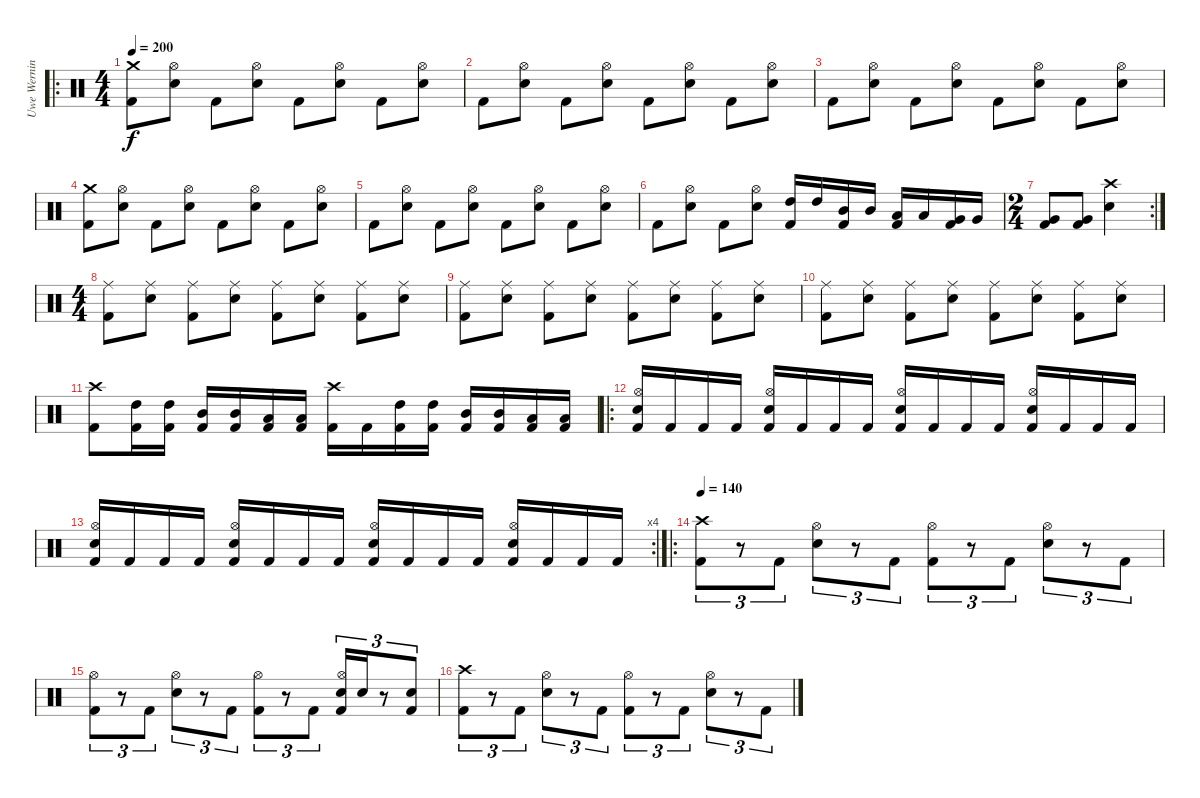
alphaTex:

\track ("Uwe Werning" "Uwe Wernin") {instrument percussion}
\staff {score}
\articulation defaults
\ro
\ts (4 4)
\tempo 200
\clef neutral
\ks c
("Crash medium (hit)" "Kick (hit) 2").8{dy f} ("Hi-Hat (open)" "Electric Snare (hit)").8 "Kick (hit) 2".8 ("Hi-Hat (open)" "Electric Snare (hit)").8 "Kick (hit) 2".8 ("Hi-Hat (open)" "Electric Snare (hit)").8 "Kick (hit) 2".8 ("Hi-Hat (open)" "Electric Snare (hit)").8 |
"Kick (hit) 2".8 ("Hi-Hat (open)" "Electric Snare (hit)").8 "Kick (hit) 2".8 ("Hi-Hat (open)" "Electric Snare (hit)").8 "Kick (hit) 2".8 ("Hi-Hat (open)" "Electric Snare (hit)").8 "Kick (hit) 2".8 ("Hi-Hat (open)" "Electric Snare (hit)").8 |
"Kick (hit) 2".8 ("Hi-Hat (open)" "Electric Snare (hit)").8 "Kick (hit) 2".8 ("Hi-Hat (open)" "Electric Snare (hit)").8 "Kick (hit) 2".8 ("Hi-Hat (open)" "Electric Snare (hit)").8 "Kick (hit) 2".8 ("Hi-Hat (open)" "Electric Snare (hit)").8 |
("Crash medium (hit)" "Kick (hit) 2").8 ("Hi-Hat (open)" "Electric Snare (hit)").8 "Kick (hit) 2".8 ("Hi-Hat (open)" "Electric Snare (hit)").8 "Kick (hit) 2".8 ("Hi-Hat (open)" "Electric Snare (hit)").8 "Kick (hit) 2".8 ("Hi-Hat (open)" "Electric Snare (hit)").8 |
"Kick (hit) 2".8 ("Hi-Hat (open)" "Electric Snare (hit)").8 "Kick (hit) 2".8 ("Hi-Hat (open)" "Electric Snare (hit)").8 "Kick (hit) 2".8 ("Hi-Hat (open)" "Electric Snare (hit)").8 "Kick (hit) 2".8 ("Hi-Hat (open)" "Electric Snare (hit)").8 |
"Kick (hit) 2".8 ("Hi-Hat (open)" "Electric Snare (hit)").8 "Kick (hit) 2".8 ("Hi-Hat (open)" "Electric Snare (hit)").8 ("High Tom (hit)" "Kick (hit) 2").16 "High Tom (hit)".16 ("Mid Tom (hit)" "Kick (hit) 2").16 "Mid Tom (hit)".16 ("Low Tom (hit)" "Kick (hit) 2").16 "Low Tom (hit)".16 ("Very Low Tom (hit)" "Kick (hit) 2").16 "Very Low Tom (hit)".16 |
\rc 2
\ts (2 4)
("Very Low Tom (hit)" "Kick (hit) 2").8 ("Very Low Tom (hit)" "Kick (hit) 2").8 ("Crash high (hit)" "Electric Snare (hit)").4 |
\ts (4 4)
("Ride (middle)" "Kick (hit) 2").8 ("Ride (middle)" "Electric Snare (hit)").8 ("Ride (middle)" "Kick (hit) 2").8 ("Ride (middle)" "Electric Snare (hit)").8 ("Ride (middle)" "Kick (hit) 2").8 ("Ride (middle)" "Electric Snare (hit)").8 ("Ride (middle)" "Kick (hit) 2").8 ("Ride (middle)" "Electric Snare (hit)").8 |
("Ride (middle)" "Kick (hit) 2").8 ("Ride (middle)" "Electric Snare (hit)").8 ("Ride (middle)" "Kick (hit) 2").8 ("Ride (middle)" "Electric Snare (hit)").8 ("Ride (middle)" "Kick (hit) 2").8 ("Ride (middle)" "Electric Snare (hit)").8 ("Ride (middle)" "Kick (hit) 2").8 ("Ride (middle)" "Electric Snare (hit)").8 |
("Ride (middle)" "Kick (hit) 2").8 ("Ride (middle)" "Electric Snare (hit)").8 ("Ride (middle)" "Kick (hit) 2").8 ("Ride (middle)" "Electric Snare (hit)").8 ("Ride (middle)" "Kick (hit) 2").8 ("Ride (middle)" "Electric Snare (hit)").8 ("Ride (middle)" "Kick (hit) 2").8 ("Ride (middle)" "Electric Snare (hit)").8 |
("Crash high (hit)" "Kick (hit) 2").8 ("High Tom (hit)" "Kick (hit) 2").16 ("High Tom (hit)" "Kick (hit) 2").16 ("Mid Tom (hit)" "Kick (hit) 2").16 ("Mid Tom (hit)" "Kick (hit) 2").16 ("Low Tom (hit)" "Kick (hit) 2").16 ("Low Tom (hit)" "Kick (hit) 2").16 ("Crash high (hit)" "Kick (hit) 2").16 "Kick (hit) 2".16 ("High Tom (hit)" "Kick (hit) 2").16 ("High Tom (hit)" "Kick (hit) 2").16 ("Mid Tom (hit)" "Kick (hit) 2").16 ("Mid Tom (hit)" "Kick (hit) 2").16 ("Low Tom (hit)" "Kick (hit) 2").16 ("Low Tom (hit)" "Kick (hit) 2").16 |
\ro
("Hi-Hat (open)" "Electric Snare (hit)" "Kick (hit) 2").16 "Kick (hit) 2".16 "Kick (hit) 2".16 "Kick (hit) 2".16 ("Hi-Hat (open)" "Electric Snare (hit)" "Kick (hit) 2").16 "Kick (hit) 2".16 "Kick (hit) 2".16 "Kick (hit) 2".16 ("Hi-Hat (open)" "Electric Snare (hit)" "Kick (hit) 2").16 "Kick (hit) 2".16 "Kick (hit) 2".16 "Kick (hit) 2".16 ("Hi-Hat (open)" "Electric Snare (hit)" "Kick (hit) 2").16 "Kick (hit) 2".16 "Kick (hit) 2".16 "Kick (hit) 2".16 |
\rc 4
("Hi-Hat (open)" "Electric Snare (hit)" "Kick (hit) 2").16 "Kick (hit) 2".16 "Kick (hit) 2".16 "Kick (hit) 2".16 ("Hi-Hat (open)" "Electric Snare (hit)" "Kick (hit) 2").16 "Kick (hit) 2".16 "Kick (hit) 2".16 "Kick (hit) 2".16 ("Hi-Hat (open)" "Electric Snare (hit)" "Kick (hit) 2").16 "Kick (hit) 2".16 "Kick (hit) 2".16 "Kick (hit) 2".16 ("Hi-Hat (open)" "Electric Snare (hit)" "Kick (hit) 2").16 "Kick (hit) 2".16 "Kick (hit) 2".16 "Kick (hit) 2".16 |
\ro
\tempo 140
("Crash high (hit)" "Kick (hit) 2").8{tu (3 2)} r.8{tu (3 2)} "Kick (hit) 2".8{tu (3 2)} ("Hi-Hat (open)" "Electric Snare (hit)").8{tu (3 2)} r.8{tu (3 2)} "Kick (hit) 2".8{tu (3 2)} ("Hi-Hat (open)" "Kick (hit) 2").8{tu (3 2)} r.8{tu (3 2)} "Kick (hit) 2".8{tu (3 2)} ("Hi-Hat (open)" "Electric Snare (hit)").8{tu (3 2)} r.8{tu (3 2)} "Kick (hit) 2".8{tu (3 2)} |
("Hi-Hat (open)" "Kick (hit) 2").8{tu (3 2)} r.8{tu (3 2)} "Kick (hit) 2".8{tu (3 2)} ("Hi-Hat (open)" "Electric Snare (hit)").8{tu (3 2)} r.8{tu (3 2)} "Kick (hit) 2".8{tu (3 2)} ("Hi-Hat (open)" "Kick (hit) 2").8{tu (3 2)} r.8{tu (3 2)} "Kick (hit) 2".8{tu (3 2)} ("Hi-Hat (open)" "Electric Snare (hit)" "Kick (hit) 2").16{tu (3 2)} "Electric Snare (hit)".16{tu (3 2)} r.8{tu (3 2)} ("Electric Snare (hit)" "Kick (hit) 2").8{tu (3 2)} |
("Crash high (hit)" "Kick (hit) 2").8{tu (3 2)} r.8{tu (3 2)} "Kick (hit) 2".8{tu (3 2)} ("Hi-Hat (open)" "Electric Snare (hit)").8{tu (3 2)} r.8{tu (3 2)} "Kick (hit) 2".8{tu (3 2)} ("Hi-Hat (open)" "Kick (hit) 2").8{tu (3 2)} r.8{tu (3 2)} "Kick (hit) 2".8{tu (3 2)} ("Hi-Hat (open)" "Electric Snare (hit)").8{tu (3 2)} r.8{tu (3 2)} "Kick (hit) 2".8{tu (3 2)}
